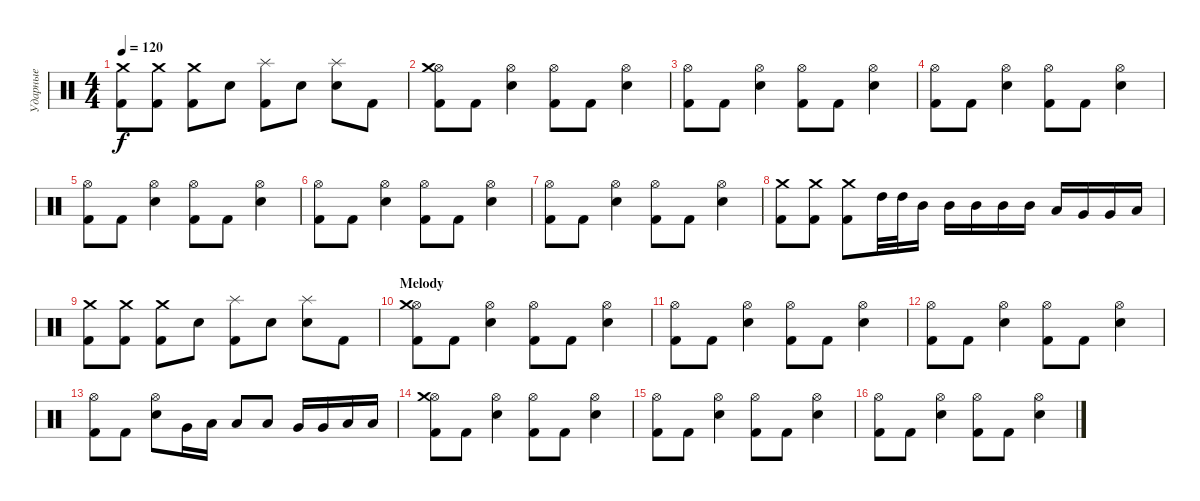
\track ("Ударные" "Ударные") {instrument percussion}
\staff {score}
\articulation defaults
\ts (4 4)
\tempo 120
\clef neutral
\ks c
("Crash medium (hit)" "Kick (hit) 2").8{dy f} ("Crash medium (hit)" "Kick (hit) 2").8 ("Crash medium (hit)" "Kick (hit) 2").8 "Electric Snare (hit)".8 ("Splash (hit)" "Kick (hit) 2").8 "Electric Snare (hit)".8 ("Splash (hit)" "Electric Snare (hit)").8 "Kick (hit) 2".8 |
("Hi-Hat (open)" "Kick (hit) 2" "Crash medium (hit)").8 "Kick (hit) 2".8 ("Hi-Hat (open)" "Electric Snare (hit)").4 ("Hi-Hat (open)" "Kick (hit) 2").8 "Kick (hit) 2".8 ("Hi-Hat (open)" "Electric Snare (hit)").4 |
("Hi-Hat (open)" "Kick (hit) 2").8 "Kick (hit) 2".8 ("Hi-Hat (open)" "Electric Snare (hit)").4 ("Hi-Hat (open)" "Kick (hit) 2").8 "Kick (hit) 2".8 ("Hi-Hat (open)" "Electric Snare (hit)").4 |
("Hi-Hat (open)" "Kick (hit) 2").8 "Kick (hit) 2".8 ("Hi-Hat (open)" "Electric Snare (hit)").4 ("Hi-Hat (open)" "Kick (hit) 2").8 "Kick (hit) 2".8 ("Hi-Hat (open)" "Electric Snare (hit)").4 |
("Hi-Hat (open)" "Kick (hit) 2").8 "Kick (hit) 2".8 ("Hi-Hat (open)" "Electric Snare (hit)").4 ("Hi-Hat (open)" "Kick (hit) 2").8 "Kick (hit) 2".8 ("Hi-Hat (open)" "Electric Snare (hit)").4 |
("Hi-Hat (open)" "Kick (hit) 2").8 "Kick (hit) 2".8 ("Hi-Hat (open)" "Electric Snare (hit)").4 ("Hi-Hat (open)" "Kick (hit) 2").8 "Kick (hit) 2".8 ("Hi-Hat (open)" "Electric Snare (hit)").4 |
("Hi-Hat (open)" "Kick (hit) 2").8 "Kick (hit) 2".8 ("Hi-Hat (open)" "Electric Snare (hit)").4 ("Hi-Hat (open)" "Kick (hit) 2").8 "Kick (hit) 2".8 ("Hi-Hat (open)" "Electric Snare (hit)").4 |
("Crash medium (hit)" "Kick (hit) 2").8 ("Crash medium (hit)" "Kick (hit) 2").8 ("Crash medium (hit)" "Kick (hit) 2").8 "High Tom (hit)".32 "High Tom (hit)".32 "Mid Tom (hit)".16 "Mid Tom (hit)".16 "Mid Tom (hit)".16 "Mid Tom (hit)".16 "Mid Tom (hit)".16 "Low Tom (hit)".16 "Very Low Tom (hit)".16 "Very Low Tom (hit)".16 "Low Floor Tom (hit)".16 |
("Crash medium (hit)" "Kick (hit) 2").8 ("Crash medium (hit)" "Kick (hit) 2").8 ("Crash medium (hit)" "Kick (hit) 2").8 "Electric Snare (hit)".8 ("Splash (hit)" "Kick (hit) 2").8 "Electric Snare (hit)".8 ("Splash (hit)" "Electric Snare (hit)").8 "Kick (hit) 2".8 |
\section ("" "Melody")
("Hi-Hat (open)" "Kick (hit) 2" "Crash medium (hit)").8 "Kick (hit) 2".8 ("Hi-Hat (open)" "Electric Snare (hit)").4 ("Hi-Hat (open)" "Kick (hit) 2").8 "Kick (hit) 2".8 ("Hi-Hat (open)" "Electric Snare (hit)").4 |
("Hi-Hat (open)" "Kick (hit) 2").8 "Kick (hit) 2".8 ("Hi-Hat (open)" "Electric Snare (hit)").4 ("Hi-Hat (open)" "Kick (hit) 2").8 "Kick (hit) 2".8 ("Hi-Hat (open)" "Electric Snare (hit)").4 |
("Hi-Hat (open)" "Kick (hit) 2").8 "Kick (hit) 2".8 ("Hi-Hat (open)" "Electric Snare (hit)").4 ("Hi-Hat (open)" "Kick (hit) 2").8 "Kick (hit) 2".8 ("Hi-Hat (open)" "Electric Snare (hit)").4 |
("Hi-Hat (open)" "Kick (hit) 2").8 "Kick (hit) 2".8 ("Hi-Hat (open)" "Electric Snare (hit)").8 "Very Low Tom (hit)".16 "Low Floor Tom (hit)".16 "Low Floor Tom (hit)".8 "Low Floor Tom (hit)".8 "Very Low Tom (hit)".16 "Very Low Tom (hit)".16 "Low Floor Tom (hit)".16 "Low Floor Tom (hit)".16 |
("Hi-Hat (open)" "Kick (hit) 2" "Crash medium (hit)").8 "Kick (hit) 2".8 ("Hi-Hat (open)" "Electric Snare (hit)").4 ("Hi-Hat (open)" "Kick (hit) 2").8 "Kick (hit) 2".8 ("Hi-Hat (open)" "Electric Snare (hit)").4 |
("Hi-Hat (open)" "Kick (hit) 2").8 "Kick (hit) 2".8 ("Hi-Hat (open)" "Electric Snare (hit)").4 ("Hi-Hat (open)" "Kick (hit) 2").8 "Kick (hit) 2".8 ("Hi-Hat (open)" "Electric Snare (hit)").4 |
("Hi-Hat (open)" "Kick (hit) 2").8 "Kick (hit) 2".8 ("Hi-Hat (open)" "Electric Snare (hit)").4 ("Hi-Hat (open)" "Kick (hit) 2").8 "Kick (hit) 2".8 ("Hi-Hat (open)" "Electric Snare (hit)").4
